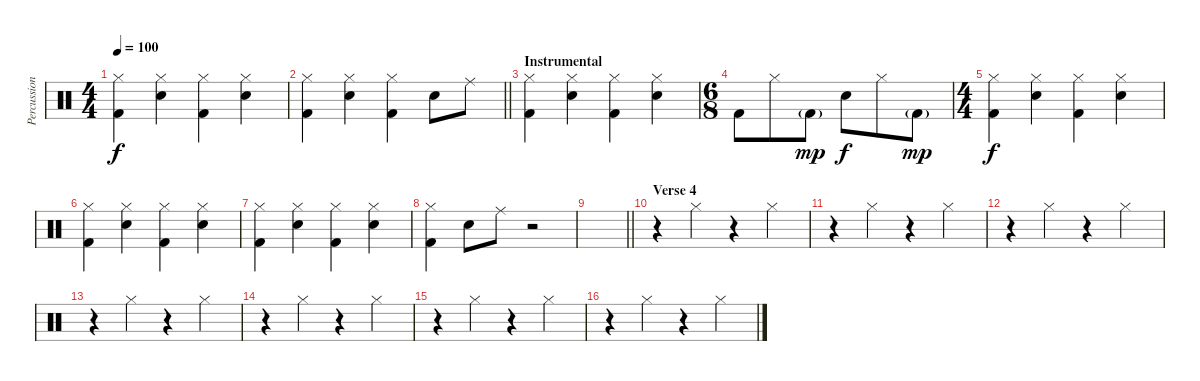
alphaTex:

\track ("Percussion" "Percussion") {instrument percussion}
\staff {score}
\articulation defaults
\ts (4 4)
\tempo 100
\clef neutral
\ks c
("Hi-Hat (closed)" "Kick (hit) 2").4{dy f} ("Hi-Hat (closed)" "Snare (hit) 2").4 ("Hi-Hat (closed)" "Kick (hit) 2").4 ("Hi-Hat (closed)" "Snare (hit) 2").4 |
\barLineRight lightlight
("Hi-Hat (closed)" "Kick (hit) 2").4 ("Hi-Hat (closed)" "Snare (hit) 2").4 ("Hi-Hat (closed)" "Kick (hit) 2").4 "Snare (hit) 2".8 "Ride (middle)".8 |
\section ("" "Instrumental")
("Hi-Hat (closed)" "Kick (hit) 2").4 ("Hi-Hat (closed)" "Snare (hit) 2").4 ("Hi-Hat (closed)" "Kick (hit) 2").4 ("Hi-Hat (closed)" "Snare (hit) 2").4 |
\ts (6 8)
"Kick (hit) 2".8 "Hi-Hat (closed)".8 "Kick (hit) 2"{g}.8{dy mp} "Snare (hit) 2".8{dy f} "Hi-Hat (closed)".8 "Kick (hit) 2"{g}.8{dy mp} |
\ts (4 4)
("Hi-Hat (closed)" "Kick (hit) 2").4{dy f} ("Hi-Hat (closed)" "Snare (hit) 2").4 ("Hi-Hat (closed)" "Kick (hit) 2").4 ("Hi-Hat (closed)" "Snare (hit) 2").4 |
("Hi-Hat (closed)" "Kick (hit) 2").4 ("Hi-Hat (closed)" "Snare (hit) 2").4 ("Hi-Hat (closed)" "Kick (hit) 2").4 ("Hi-Hat (closed)" "Snare (hit) 2").4 |
("Hi-Hat (closed)" "Kick (hit) 2").4 ("Hi-Hat (closed)" "Snare (hit) 2").4 ("Hi-Hat (closed)" "Kick (hit) 2").4 ("Hi-Hat (closed)" "Snare (hit) 2").4 |
("Hi-Hat (closed)" "Kick (hit) 2").4 "Snare (hit) 2".8 "Ride (middle)".8 r.2 |
\barLineRight lightlight
|
\section ("" "Verse 4")
r.4 "Hi-Hat (closed)".4{volume 10} r.4 "Hi-Hat (closed)".4 |
r.4 "Hi-Hat (closed)".4 r.4 "Hi-Hat (closed)".4 |
r.4 "Hi-Hat (closed)".4 r.4 "Hi-Hat (closed)".4 |
r.4 "Hi-Hat (closed)".4 r.4 "Hi-Hat (closed)".4 |
r.4 "Hi-Hat (closed)".4 r.4 "Hi-Hat (closed)".4 |
r.4 "Hi-Hat (closed)".4 r.4 "Hi-Hat (closed)".4 |
r.4 "Hi-Hat (closed)".4 r.4 "Hi-Hat (closed)".4
